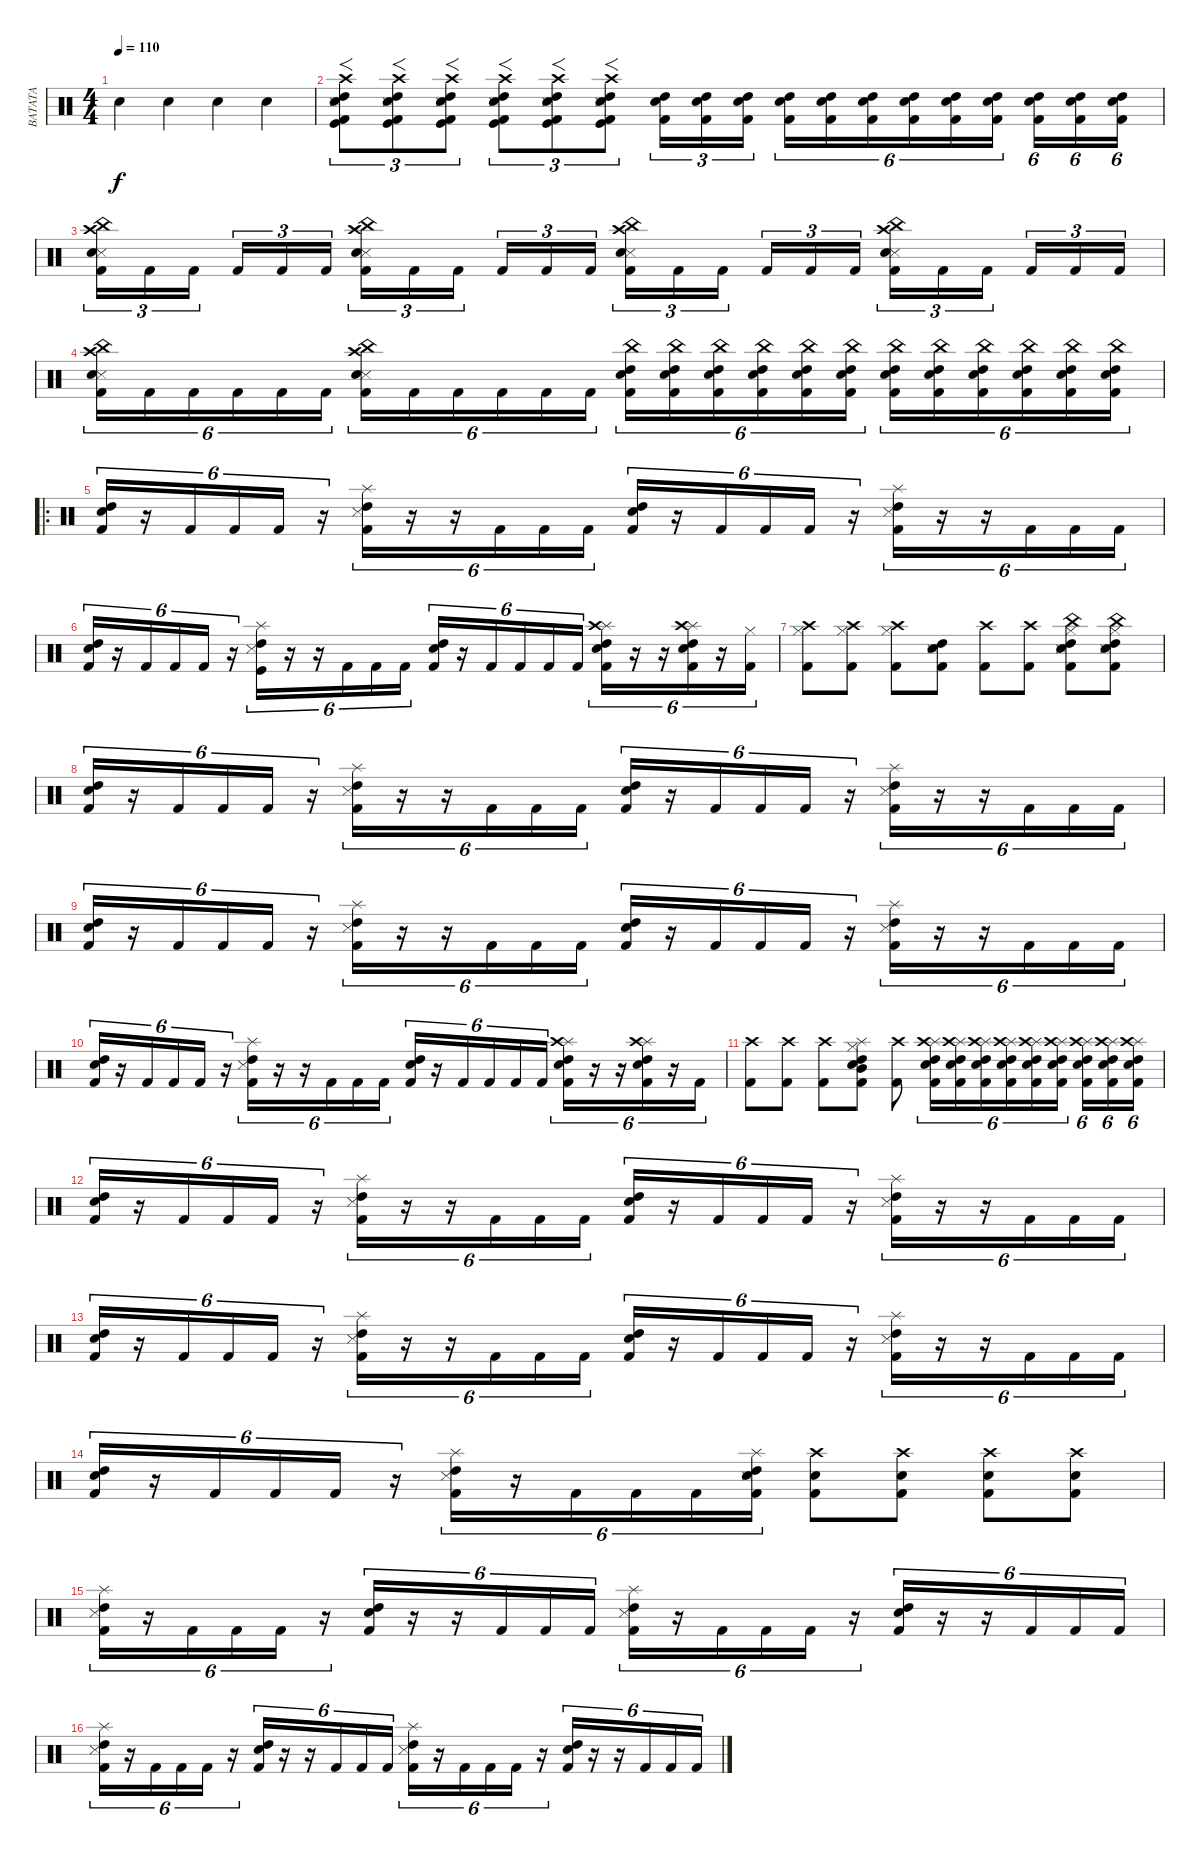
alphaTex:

\track ("BATATA" "BATATA") {instrument percussion}
\staff {score}
\articulation defaults
\ts (4 4)
\tempo 110
\clef neutral
\ks c "Snare (hit) 2".4{dy f} "Snare (hit) 2".4 "Snare (hit) 2".4 "Snare (hit) 2".4
|
("Kick (hit) 2" "Snare (side stick) 3" "Snare (hit) 2" "High Tom (hit)" "Kick (hit)" "Crash high (hit)").8{f tu (3 2)} ("Kick (hit) 2" "Snare (hit) 2" "High Tom (hit)" "Snare (side stick) 3" "Kick (hit)" "Crash high (hit)").8{f tu (3 2)} ("Kick (hit) 2" "Snare (hit) 2" "High Tom (hit)" "Snare (side stick) 3" "Kick (hit)" "Crash high (hit)").8{f tu (3 2)} ("Kick (hit) 2" "Snare (hit) 2" "High Tom (hit)" "Snare (side stick) 3" "Kick (hit)" "Crash high (hit)").8{f tu (3 2)} ("Kick (hit) 2" "Snare (hit) 2" "High Tom (hit)" "Snare (side stick) 3" "Kick (hit)" "Crash high (hit)").8{f tu (3 2)} ("Kick (hit) 2" "Snare (hit) 2" "High Tom (hit)" "Snare (side stick) 3" "Kick (hit)" "Crash high (hit)").8{f tu (3 2)} ("Kick (hit) 2" "Snare (hit) 2" "High Tom (hit)").16{tu (3 2)} ("Kick (hit) 2" "Snare (hit) 2" "High Tom (hit)").16{tu (3 2)} ("Kick (hit) 2" "Snare (hit) 2" "High Tom (hit)").16{tu (3 2)} ("Kick (hit) 2" "Snare (hit) 2" "High Tom (hit)").16{tu (6 4)} ("Kick (hit) 2" "Snare (hit) 2" "High Tom (hit)").16{tu (6 4)} ("Kick (hit) 2" "Snare (hit) 2" "High Tom (hit)").16{tu (6 4)} ("Kick (hit) 2" "Snare (hit) 2" "High Tom (hit)").16{tu (6 4)} ("Kick (hit) 2" "Snare (hit) 2" "High Tom (hit)").16{tu (6 4)} ("Kick (hit) 2" "Snare (hit) 2" "High Tom (hit)").16{tu (6 4)} ("Kick (hit) 2" "Snare (hit) 2" "High Tom (hit)").16{tu (6 4)} ("Kick (hit) 2" "Snare (hit) 2" "High Tom (hit)").16{tu (6 4)} ("Kick (hit) 2" "Snare (hit) 2" "High Tom (hit)").16{tu (6 4)} |
("China (hit)" "Snare (side stick) 3" "Snare (hit) 2" "Crash high (hit)" "Kick (hit) 2").16{tu (3 2)} "Kick (hit) 2".16{tu (3 2)} "Kick (hit) 2".16{tu (3 2)} "Kick (hit) 2".16{tu (3 2)} "Kick (hit) 2".16{tu (3 2)} "Kick (hit) 2".16{tu (3 2)} ("China (hit)" "Snare (side stick) 3" "Snare (hit) 2" "Crash high (hit)" "Kick (hit) 2").16{tu (3 2)} "Kick (hit) 2".16{tu (3 2)} "Kick (hit) 2".16{tu (3 2)} "Kick (hit) 2".16{tu (3 2)} "Kick (hit) 2".16{tu (3 2)} "Kick (hit) 2".16{tu (3 2)} ("China (hit)" "Snare (side stick) 3" "Snare (hit) 2" "Crash high (hit)" "Kick (hit) 2").16{tu (3 2)} "Kick (hit) 2".16{tu (3 2)} "Kick (hit) 2".16{tu (3 2)} "Kick (hit) 2".16{tu (3 2)} "Kick (hit) 2".16{tu (3 2)} "Kick (hit) 2".16{tu (3 2)} ("China (hit)" "Snare (side stick) 3" "Snare (hit) 2" "Crash high (hit)" "Kick (hit) 2").16{tu (3 2)} "Kick (hit) 2".16{tu (3 2)} "Kick (hit) 2".16{tu (3 2)} "Kick (hit) 2".16{tu (3 2)} "Kick (hit) 2".16{tu (3 2)} "Kick (hit) 2".16{tu (3 2)} |
("China (hit)" "Snare (side stick) 3" "Snare (hit) 2" "Crash high (hit)" "Kick (hit) 2").16{tu (6 4)} "Kick (hit) 2".16{tu (6 4)} "Kick (hit) 2".16{tu (6 4)} "Kick (hit) 2".16{tu (6 4)} "Kick (hit) 2".16{tu (6 4)} "Kick (hit) 2".16{tu (6 4)} ("China (hit)" "Snare (side stick) 3" "Snare (hit) 2" "Crash high (hit)" "Kick (hit) 2").16{tu (6 4)} "Kick (hit) 2".16{tu (6 4)} "Kick (hit) 2".16{tu (6 4)} "Kick (hit) 2".16{tu (6 4)} "Kick (hit) 2".16{tu (6 4)} "Kick (hit) 2".16{tu (6 4)} ("China (hit)" "High Tom (hit)" "Snare (hit) 2" "Kick (hit) 2").16{tu (6 4)} ("China (hit)" "High Tom (hit)" "Snare (hit) 2" "Kick (hit) 2").16{tu (6 4)} ("China (hit)" "High Tom (hit)" "Snare (hit) 2" "Kick (hit) 2").16{tu (6 4)} ("China (hit)" "High Tom (hit)" "Snare (hit) 2" "Kick (hit) 2").16{tu (6 4)} ("China (hit)" "High Tom (hit)" "Snare (hit) 2" "Kick (hit) 2").16{tu (6 4)} ("China (hit)" "High Tom (hit)" "Snare (hit) 2" "Kick (hit) 2").16{tu (6 4)} ("China (hit)" "High Tom (hit)" "Snare (hit) 2" "Kick (hit) 2").16{tu (6 4)} ("China (hit)" "High Tom (hit)" "Snare (hit) 2" "Kick (hit) 2").16{tu (6 4)} ("China (hit)" "High Tom (hit)" "Snare (hit) 2" "Kick (hit) 2").16{tu (6 4)} ("China (hit)" "High Tom (hit)" "Snare (hit) 2" "Kick (hit) 2").16{tu (6 4)} ("China (hit)" "High Tom (hit)" "Snare (hit) 2" "Kick (hit) 2").16{tu (6 4)} ("China (hit)" "High Tom (hit)" "Snare (hit) 2" "Kick (hit) 2").16{tu (6 4)} |
\ro
("Snare (hit) 2" "High Tom (hit)" "Kick (hit) 2").16{tu (6 4)} r.16{tu (6 4)} "Kick (hit) 2".16{tu (6 4)} "Kick (hit) 2".16{tu (6 4)} "Kick (hit) 2".16{tu (6 4)} r.16{tu (6 4)} ("Splash (hit)" "Snare (side stick) 3" "High Tom (hit)" "Kick (hit) 2").16{tu (6 4)} r.16{tu (6 4)} r.16{tu (6 4)} "Kick (hit) 2".16{tu (6 4)} "Kick (hit) 2".16{tu (6 4)} "Kick (hit) 2".16{tu (6 4)} ("Snare (hit) 2" "High Tom (hit)" "Kick (hit) 2").16{tu (6 4)} r.16{tu (6 4)} "Kick (hit) 2".16{tu (6 4)} "Kick (hit) 2".16{tu (6 4)} "Kick (hit) 2".16{tu (6 4)} r.16{tu (6 4)} ("Splash (hit)" "Snare (side stick) 3" "High Tom (hit)" "Kick (hit) 2").16{tu (6 4)} r.16{tu (6 4)} r.16{tu (6 4)} "Kick (hit) 2".16{tu (6 4)} "Kick (hit) 2".16{tu (6 4)} "Kick (hit) 2".16{tu (6 4)} |
("Snare (hit) 2" "High Tom (hit)" "Kick (hit) 2").16{tu (6 4)} r.16{tu (6 4)} "Kick (hit) 2".16{tu (6 4)} "Kick (hit) 2".16{tu (6 4)} "Kick (hit) 2".16{tu (6 4)} r.16{tu (6 4)} ("Splash (hit)" "Snare (side stick) 3" "High Tom (hit)" "Kick (hit)").16{tu (6 4)} r.16{tu (6 4)} r.16{tu (6 4)} "Kick (hit) 2".16{tu (6 4)} "Kick (hit) 2".16{tu (6 4)} "Kick (hit) 2".16{tu (6 4)} ("Snare (hit) 2" "High Tom (hit)" "Kick (hit) 2").16{tu (6 4)} r.16{tu (6 4)} "Kick (hit) 2".16{tu (6 4)} "Kick (hit) 2".16{tu (6 4)} "Kick (hit) 2".16{tu (6 4)} "Kick (hit) 2".16{tu (6 4)} ("Splash (hit)" "Crash high (hit)" "Snare (hit) 2" "High Tom (hit)" "Kick (hit) 2").16{tu (6 4)} r.16{tu (6 4)} r.16{tu (6 4)} ("Splash (hit)" "Crash high (hit)" "Snare (hit) 2" "High Tom (hit)" "Kick (hit) 2").16{tu (6 4)} r.16{tu (6 4)} ("Hi-Hat (closed)" "Kick (hit) 2").16{tu (6 4)} |
("Crash high (hit)" "Hi-Hat (closed)" "Kick (hit) 2").8 ("Crash high (hit)" "Hi-Hat (closed)" "Kick (hit) 2").8 ("Crash high (hit)" "Hi-Hat (closed)" "Kick (hit) 2").8 ("Snare (hit) 2" "High Tom (hit)" "Snare (side stick) 3" "Kick (hit) 2").8 ("Crash high (hit)" "Kick (hit) 2").8 ("Crash high (hit)" "Kick (hit) 2").8 ("China (hit)" "Hi-Hat (closed)" "Snare (side stick) 3" "Snare (hit) 2" "High Tom (hit)" "Kick (hit) 2").8 ("China (hit)" "Hi-Hat (closed)" "Snare (side stick) 3" "Snare (hit) 2" "High Tom (hit)" "Kick (hit) 2").8 |
("Snare (hit) 2" "High Tom (hit)" "Kick (hit) 2").16{tu (6 4)} r.16{tu (6 4)} "Kick (hit) 2".16{tu (6 4)} "Kick (hit) 2".16{tu (6 4)} "Kick (hit) 2".16{tu (6 4)} r.16{tu (6 4)} ("Splash (hit)" "Snare (side stick) 3" "High Tom (hit)" "Kick (hit) 2").16{tu (6 4)} r.16{tu (6 4)} r.16{tu (6 4)} "Kick (hit) 2".16{tu (6 4)} "Kick (hit) 2".16{tu (6 4)} "Kick (hit) 2".16{tu (6 4)} ("Snare (hit) 2" "High Tom (hit)" "Kick (hit) 2").16{tu (6 4)} r.16{tu (6 4)} "Kick (hit) 2".16{tu (6 4)} "Kick (hit) 2".16{tu (6 4)} "Kick (hit) 2".16{tu (6 4)} r.16{tu (6 4)} ("Splash (hit)" "Snare (side stick) 3" "High Tom (hit)" "Kick (hit) 2").16{tu (6 4)} r.16{tu (6 4)} r.16{tu (6 4)} "Kick (hit) 2".16{tu (6 4)} "Kick (hit) 2".16{tu (6 4)} "Kick (hit) 2".16{tu (6 4)} |
("Snare (hit) 2" "High Tom (hit)" "Kick (hit) 2").16{tu (6 4)} r.16{tu (6 4)} "Kick (hit) 2".16{tu (6 4)} "Kick (hit) 2".16{tu (6 4)} "Kick (hit) 2".16{tu (6 4)} r.16{tu (6 4)} ("Splash (hit)" "Snare (side stick) 3" "High Tom (hit)" "Kick (hit) 2").16{tu (6 4)} r.16{tu (6 4)} r.16{tu (6 4)} "Kick (hit) 2".16{tu (6 4)} "Kick (hit) 2".16{tu (6 4)} "Kick (hit) 2".16{tu (6 4)} ("Snare (hit) 2" "High Tom (hit)" "Kick (hit) 2").16{tu (6 4)} r.16{tu (6 4)} "Kick (hit) 2".16{tu (6 4)} "Kick (hit) 2".16{tu (6 4)} "Kick (hit) 2".16{tu (6 4)} r.16{tu (6 4)} ("Splash (hit)" "Snare (side stick) 3" "High Tom (hit)" "Kick (hit) 2").16{tu (6 4)} r.16{tu (6 4)} r.16{tu (6 4)} "Kick (hit) 2".16{tu (6 4)} "Kick (hit) 2".16{tu (6 4)} "Kick (hit) 2".16{tu (6 4)} |
("Snare (hit) 2" "High Tom (hit)" "Kick (hit) 2").16{tu (6 4)} r.16{tu (6 4)} "Kick (hit) 2".16{tu (6 4)} "Kick (hit) 2".16{tu (6 4)} "Kick (hit) 2".16{tu (6 4)} r.16{tu (6 4)} ("Splash (hit)" "Snare (side stick) 3" "High Tom (hit)" "Kick (hit) 2").16{tu (6 4)} r.16{tu (6 4)} r.16{tu (6 4)} "Kick (hit) 2".16{tu (6 4)} "Kick (hit) 2".16{tu (6 4)} "Kick (hit) 2".16{tu (6 4)} ("High Tom (hit)" "Snare (hit) 2" "Kick (hit) 2").16{tu (6 4)} r.16{tu (6 4)} "Kick (hit) 2".16{tu (6 4)} "Kick (hit) 2".16{tu (6 4)} "Kick (hit) 2".16{tu (6 4)} "Kick (hit) 2".16{tu (6 4)} ("Splash (hit)" "Crash high (hit)" "High Tom (hit)" "Snare (hit) 2" "Kick (hit) 2").16{tu (6 4)} r.16{tu (6 4)} r.16{tu (6 4)} ("Splash (hit)" "Crash high (hit)" "High Tom (hit)" "Snare (hit) 2" "Kick (hit) 2").16{tu (6 4)} r.16{tu (6 4)} "Kick (hit) 2".16{tu (6 4)} |
("Crash high (hit)" "Kick (hit) 2").8 ("Crash high (hit)" "Kick (hit) 2").8 ("Crash high (hit)" "Kick (hit) 2").8 ("Mid Tom (hit)" "Hi-Hat (closed)" "Splash (hit)" "Snare (hit) 2" "High Tom (hit)" "Kick (hit) 2").8 ("Crash high (hit)" "Kick (hit) 2").8 ("Splash (hit)" "Crash high (hit)" "High Tom (hit)" "Snare (hit) 2" "Kick (hit) 2").16{tu (6 4)} ("Splash (hit)" "Crash high (hit)" "High Tom (hit)" "Snare (hit) 2" "Kick (hit) 2").16{tu (6 4)} ("Splash (hit)" "Crash high (hit)" "High Tom (hit)" "Snare (hit) 2" "Kick (hit) 2").16{tu (6 4)} ("Splash (hit)" "Crash high (hit)" "High Tom (hit)" "Snare (hit) 2" "Kick (hit) 2").16{tu (6 4)} ("Splash (hit)" "Crash high (hit)" "High Tom (hit)" "Snare (hit) 2" "Kick (hit) 2").16{tu (6 4)} ("Splash (hit)" "Crash high (hit)" "High Tom (hit)" "Snare (hit) 2" "Kick (hit) 2").16{tu (6 4)} ("Splash (hit)" "Crash high (hit)" "High Tom (hit)" "Snare (hit) 2" "Kick (hit) 2").16{tu (6 4)} ("Splash (hit)" "Crash high (hit)" "High Tom (hit)" "Snare (hit) 2" "Kick (hit) 2").16{tu (6 4)} ("Splash (hit)" "Crash high (hit)" "High Tom (hit)" "Snare (hit) 2" "Kick (hit) 2").16{tu (6 4)} |
("Snare (hit) 2" "High Tom (hit)" "Kick (hit) 2").16{tu (6 4)} r.16{tu (6 4)} "Kick (hit) 2".16{tu (6 4)} "Kick (hit) 2".16{tu (6 4)} "Kick (hit) 2".16{tu (6 4)} r.16{tu (6 4)} ("Splash (hit)" "Snare (side stick) 3" "High Tom (hit)" "Kick (hit) 2").16{tu (6 4)} r.16{tu (6 4)} r.16{tu (6 4)} "Kick (hit) 2".16{tu (6 4)} "Kick (hit) 2".16{tu (6 4)} "Kick (hit) 2".16{tu (6 4)} ("Snare (hit) 2" "High Tom (hit)" "Kick (hit) 2").16{tu (6 4)} r.16{tu (6 4)} "Kick (hit) 2".16{tu (6 4)} "Kick (hit) 2".16{tu (6 4)} "Kick (hit) 2".16{tu (6 4)} r.16{tu (6 4)} ("Splash (hit)" "Snare (side stick) 3" "High Tom (hit)" "Kick (hit) 2").16{tu (6 4)} r.16{tu (6 4)} r.16{tu (6 4)} "Kick (hit) 2".16{tu (6 4)} "Kick (hit) 2".16{tu (6 4)} "Kick (hit) 2".16{tu (6 4)} |
("Snare (hit) 2" "High Tom (hit)" "Kick (hit) 2").16{tu (6 4)} r.16{tu (6 4)} "Kick (hit) 2".16{tu (6 4)} "Kick (hit) 2".16{tu (6 4)} "Kick (hit) 2".16{tu (6 4)} r.16{tu (6 4)} ("Splash (hit)" "Snare (side stick) 3" "High Tom (hit)" "Kick (hit) 2").16{tu (6 4)} r.16{tu (6 4)} r.16{tu (6 4)} "Kick (hit) 2".16{tu (6 4)} "Kick (hit) 2".16{tu (6 4)} "Kick (hit) 2".16{tu (6 4)} ("Snare (hit) 2" "High Tom (hit)" "Kick (hit) 2").16{tu (6 4)} r.16{tu (6 4)} "Kick (hit) 2".16{tu (6 4)} "Kick (hit) 2".16{tu (6 4)} "Kick (hit) 2".16{tu (6 4)} r.16{tu (6 4)} ("Splash (hit)" "High Tom (hit)" "Snare (side stick) 3" "Kick (hit) 2").16{tu (6 4)} r.16{tu (6 4)} r.16{tu (6 4)} "Kick (hit) 2".16{tu (6 4)} "Kick (hit) 2".16{tu (6 4)} "Kick (hit) 2".16{tu (6 4)} |
("Snare (hit) 2" "High Tom (hit)" "Kick (hit) 2").16{tu (6 4)} r.16{tu (6 4)} "Kick (hit) 2".16{tu (6 4)} "Kick (hit) 2".16{tu (6 4)} "Kick (hit) 2".16{tu (6 4)} r.16{tu (6 4)} ("Splash (hit)" "Snare (side stick) 3" "High Tom (hit)" "Kick (hit) 2").16{tu (6 4)} r.16{tu (6 4)} "Kick (hit) 2".16{tu (6 4)} "Kick (hit) 2".16{tu (6 4)} "Kick (hit) 2".16{tu (6 4)} ("Splash (hit)" "Snare (side stick) 3" "Snare (hit) 2" "High Tom (hit)" "Kick (hit) 2").16{tu (6 4)} ("Crash high (hit)" "Snare (hit) 2" "Kick (hit) 2").8 ("Crash high (hit)" "Snare (hit) 2" "Kick (hit) 2").8 ("Crash high (hit)" "Snare (hit) 2" "Kick (hit) 2").8 ("Crash high (hit)" "Snare (hit) 2" "Kick (hit) 2").8 |
("Splash (hit)" "Snare (side stick) 3" "High Tom (hit)" "Kick (hit) 2").16{tu (6 4)} r.16{tu (6 4)} "Kick (hit) 2".16{tu (6 4)} "Kick (hit) 2".16{tu (6 4)} "Kick (hit) 2".16{tu (6 4)} r.16{tu (6 4)} ("Snare (hit) 2" "High Tom (hit)" "Kick (hit) 2").16{tu (6 4)} r.16{tu (6 4)} r.16{tu (6 4)} "Kick (hit) 2".16{tu (6 4)} "Kick (hit) 2".16{tu (6 4)} "Kick (hit) 2".16{tu (6 4)} ("Splash (hit)" "Snare (side stick) 3" "High Tom (hit)" "Kick (hit) 2").16{tu (6 4)} r.16{tu (6 4)} "Kick (hit) 2".16{tu (6 4)} "Kick (hit) 2".16{tu (6 4)} "Kick (hit) 2".16{tu (6 4)} r.16{tu (6 4)} ("Snare (hit) 2" "High Tom (hit)" "Kick (hit) 2").16{tu (6 4)} r.16{tu (6 4)} r.16{tu (6 4)} "Kick (hit) 2".16{tu (6 4)} "Kick (hit) 2".16{tu (6 4)} "Kick (hit) 2".16{tu (6 4)} |
("Splash (hit)" "Snare (side stick) 3" "High Tom (hit)" "Kick (hit) 2").16{tu (6 4)} r.16{tu (6 4)} "Kick (hit) 2".16{tu (6 4)} "Kick (hit) 2".16{tu (6 4)} "Kick (hit) 2".16{tu (6 4)} r.16{tu (6 4)} ("Snare (hit) 2" "High Tom (hit)" "Kick (hit) 2").16{tu (6 4)} r.16{tu (6 4)} r.16{tu (6 4)} "Kick (hit) 2".16{tu (6 4)} "Kick (hit) 2".16{tu (6 4)} "Kick (hit) 2".16{tu (6 4)} ("Splash (hit)" "Snare (side stick) 3" "High Tom (hit)" "Kick (hit) 2").16{tu (6 4)} r.16{tu (6 4)} "Kick (hit) 2".16{tu (6 4)} "Kick (hit) 2".16{tu (6 4)} "Kick (hit) 2".16{tu (6 4)} r.16{tu (6 4)} ("Snare (hit) 2" "High Tom (hit)" "Kick (hit) 2").16{tu (6 4)} r.16{tu (6 4)} r.16{tu (6 4)} "Kick (hit) 2".16{tu (6 4)} "Kick (hit) 2".16{tu (6 4)} "Kick (hit) 2".16{tu (6 4)}
